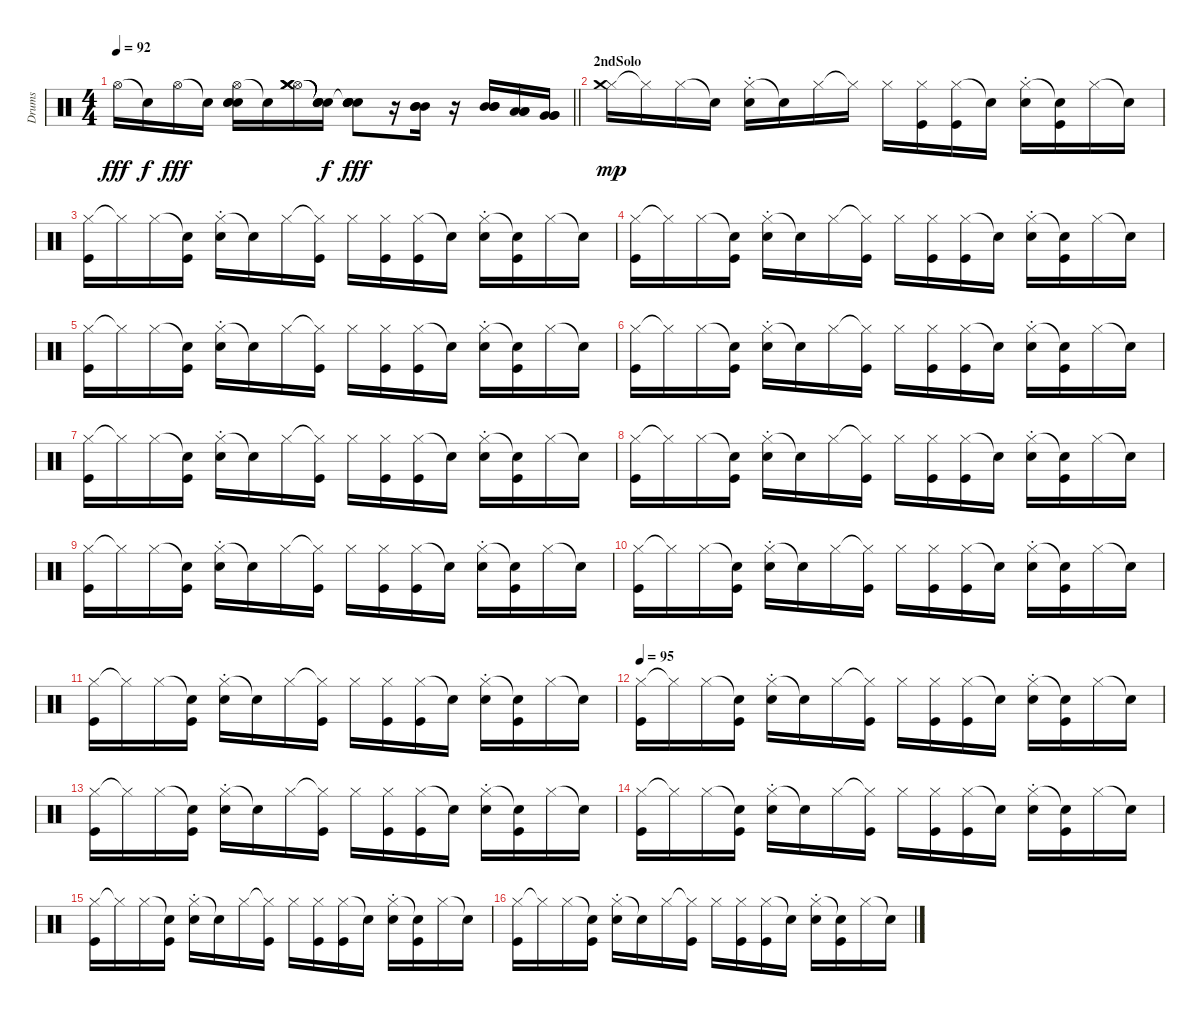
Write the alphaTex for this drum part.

\track ("Drums" "Drums") {instrument percussion}
\staff {score}
\articulation defaults
\ts (4 4)
\tempo 92
\clef neutral
\barLineRight lightlight
\ks c "Hi-Hat (open)".16{dy fff} "Snare (hit)"{t}.16{dy f} "Hi-Hat (open)".16{dy fff} "Snare (hit)"{t}.16
("Hi-Hat (open)" "Snare (hit) 2" "Snare (hit) 2" "Snare (hit) 2").16 "Snare (hit)"{t}.16 ("Hi-Hat (open)" "Crash medium (hit)" "Crash medium (hit)" "Crash medium (hit)").16 ("Snare (hit)"{t} "Snare (hit)"{t} "Snare (hit)"{t} "Snare (hit)"{t}).16{dy f} ("Snare (hit)"{t} "Snare (hit) 2" "Snare (hit) 2" "Snare (hit) 2" "Snare (hit) 2").8{dy fff} r.16 ("Mid Tom (hit)" "Mid Tom (hit)" "Mid Tom (hit)").16 r.16 ("Mid Tom (hit)" "Mid Tom (hit)" "Mid Tom (hit)").16 ("Low Tom (hit)" "Low Tom (hit)" "Low Tom (hit)").16 ("Very Low Tom (hit)" "Very Low Tom (hit)" "Very Low Tom (hit)").16 |
\section ("" "2ndSolo")
("Hi-Hat (closed)" "Crash medium (hit)").16{dy mp volume 16} "Hi-Hat (closed)"{t}.16 "Hi-Hat (closed)".16 "Snare (hit)"{t}.16 ("Hi-Hat (closed)" "Snare (hit) 2"{st}).16 "Snare (hit)"{t}.16 "Hi-Hat (closed)".16 "Hi-Hat (closed)"{t}.16 "Hi-Hat (closed)".16 ("Hi-Hat (closed)" "Kick (hit)").16 ("Hi-Hat (closed)" "Kick (hit)").16 "Snare (hit)"{t}.16 ("Hi-Hat (closed)" "Snare (hit) 2"{st}).16 ("Snare (hit)"{t} "Kick (hit)").16 "Hi-Hat (closed)".16 "Snare (hit)"{t}.16 |
("Hi-Hat (closed)" "Kick (hit)").16 "Hi-Hat (closed)"{t}.16 "Hi-Hat (closed)".16 ("Snare (hit)"{t} "Kick (hit)").16 ("Hi-Hat (closed)" "Snare (hit) 2"{st}).16 "Snare (hit)"{t}.16 "Hi-Hat (closed)".16 ("Hi-Hat (closed)"{t} "Kick (hit)").16 "Hi-Hat (closed)".16 ("Hi-Hat (closed)" "Kick (hit)").16 ("Hi-Hat (closed)" "Kick (hit)").16 "Snare (hit)"{t}.16 ("Hi-Hat (closed)" "Snare (hit) 2"{st}).16 ("Snare (hit)"{t} "Kick (hit)").16 "Hi-Hat (closed)".16 "Snare (hit)"{t}.16 |
("Hi-Hat (closed)" "Kick (hit)").16 "Hi-Hat (closed)"{t}.16 "Hi-Hat (closed)".16 ("Snare (hit)"{t} "Kick (hit)").16 ("Hi-Hat (closed)" "Snare (hit) 2"{st}).16 "Snare (hit)"{t}.16 "Hi-Hat (closed)".16 ("Hi-Hat (closed)"{t} "Kick (hit)").16 "Hi-Hat (closed)".16 ("Hi-Hat (closed)" "Kick (hit)").16 ("Hi-Hat (closed)" "Kick (hit)").16 "Snare (hit)"{t}.16 ("Hi-Hat (closed)" "Snare (hit) 2"{st}).16 ("Snare (hit)"{t} "Kick (hit)").16 "Hi-Hat (closed)".16 "Snare (hit)"{t}.16 |
("Hi-Hat (closed)" "Kick (hit)").16 "Hi-Hat (closed)"{t}.16 "Hi-Hat (closed)".16 ("Snare (hit)"{t} "Kick (hit)").16 ("Hi-Hat (closed)" "Snare (hit) 2"{st}).16 "Snare (hit)"{t}.16 "Hi-Hat (closed)".16 ("Hi-Hat (closed)"{t} "Kick (hit)").16 "Hi-Hat (closed)".16 ("Hi-Hat (closed)" "Kick (hit)").16 ("Hi-Hat (closed)" "Kick (hit)").16 "Snare (hit)"{t}.16 ("Hi-Hat (closed)" "Snare (hit) 2"{st}).16 ("Snare (hit)"{t} "Kick (hit)").16 "Hi-Hat (closed)".16 "Snare (hit)"{t}.16 |
("Hi-Hat (closed)" "Kick (hit)").16 "Hi-Hat (closed)"{t}.16 "Hi-Hat (closed)".16 ("Snare (hit)"{t} "Kick (hit)").16 ("Hi-Hat (closed)" "Snare (hit) 2"{st}).16 "Snare (hit)"{t}.16 "Hi-Hat (closed)".16 ("Hi-Hat (closed)"{t} "Kick (hit)").16 "Hi-Hat (closed)".16 ("Hi-Hat (closed)" "Kick (hit)").16 ("Hi-Hat (closed)" "Kick (hit)").16 "Snare (hit)"{t}.16 ("Hi-Hat (closed)" "Snare (hit) 2"{st}).16 ("Snare (hit)"{t} "Kick (hit)").16 "Hi-Hat (closed)".16 "Snare (hit)"{t}.16 |
("Hi-Hat (closed)" "Kick (hit)").16 "Hi-Hat (closed)"{t}.16 "Hi-Hat (closed)".16 ("Snare (hit)"{t} "Kick (hit)").16 ("Hi-Hat (closed)" "Snare (hit) 2"{st}).16 "Snare (hit)"{t}.16 "Hi-Hat (closed)".16 ("Hi-Hat (closed)"{t} "Kick (hit)").16 "Hi-Hat (closed)".16 ("Hi-Hat (closed)" "Kick (hit)").16 ("Hi-Hat (closed)" "Kick (hit)").16 "Snare (hit)"{t}.16 ("Hi-Hat (closed)" "Snare (hit) 2"{st}).16 ("Snare (hit)"{t} "Kick (hit)").16 "Hi-Hat (closed)".16 "Snare (hit)"{t}.16 |
("Hi-Hat (closed)" "Kick (hit)").16 "Hi-Hat (closed)"{t}.16 "Hi-Hat (closed)".16 ("Snare (hit)"{t} "Kick (hit)").16 ("Hi-Hat (closed)" "Snare (hit) 2"{st}).16 "Snare (hit)"{t}.16 "Hi-Hat (closed)".16 ("Hi-Hat (closed)"{t} "Kick (hit)").16 "Hi-Hat (closed)".16 ("Hi-Hat (closed)" "Kick (hit)").16 ("Hi-Hat (closed)" "Kick (hit)").16 "Snare (hit)"{t}.16 ("Hi-Hat (closed)" "Snare (hit) 2"{st}).16 ("Snare (hit)"{t} "Kick (hit)").16 "Hi-Hat (closed)".16 "Snare (hit)"{t}.16 |
("Hi-Hat (closed)" "Kick (hit)").16 "Hi-Hat (closed)"{t}.16 "Hi-Hat (closed)".16 ("Snare (hit)"{t} "Kick (hit)").16 ("Hi-Hat (closed)" "Snare (hit) 2"{st}).16 "Snare (hit)"{t}.16 "Hi-Hat (closed)".16 ("Hi-Hat (closed)"{t} "Kick (hit)").16 "Hi-Hat (closed)".16 ("Hi-Hat (closed)" "Kick (hit)").16 ("Hi-Hat (closed)" "Kick (hit)").16 "Snare (hit)"{t}.16 ("Hi-Hat (closed)" "Snare (hit) 2"{st}).16 ("Snare (hit)"{t} "Kick (hit)").16 "Hi-Hat (closed)".16 "Snare (hit)"{t}.16 |
("Hi-Hat (closed)" "Kick (hit)").16 "Hi-Hat (closed)"{t}.16 "Hi-Hat (closed)".16 ("Snare (hit)"{t} "Kick (hit)").16 ("Hi-Hat (closed)" "Snare (hit) 2"{st}).16 "Snare (hit)"{t}.16 "Hi-Hat (closed)".16 ("Hi-Hat (closed)"{t} "Kick (hit)").16 "Hi-Hat (closed)".16 ("Hi-Hat (closed)" "Kick (hit)").16 ("Hi-Hat (closed)" "Kick (hit)").16 "Snare (hit)"{t}.16 ("Hi-Hat (closed)" "Snare (hit) 2"{st}).16 ("Snare (hit)"{t} "Kick (hit)").16 "Hi-Hat (closed)".16 "Snare (hit)"{t}.16 |
("Hi-Hat (closed)" "Kick (hit)").16 "Hi-Hat (closed)"{t}.16 "Hi-Hat (closed)".16 ("Snare (hit)"{t} "Kick (hit)").16 ("Hi-Hat (closed)" "Snare (hit) 2"{st}).16 "Snare (hit)"{t}.16 "Hi-Hat (closed)".16 ("Hi-Hat (closed)"{t} "Kick (hit)").16 "Hi-Hat (closed)".16 ("Hi-Hat (closed)" "Kick (hit)").16 ("Hi-Hat (closed)" "Kick (hit)").16 "Snare (hit)"{t}.16 ("Hi-Hat (closed)" "Snare (hit) 2"{st}).16 ("Snare (hit)"{t} "Kick (hit)").16 "Hi-Hat (closed)".16 "Snare (hit)"{t}.16 |
\tempo 95
("Hi-Hat (closed)" "Kick (hit)").16 "Hi-Hat (closed)"{t}.16 "Hi-Hat (closed)".16 ("Snare (hit)"{t} "Kick (hit)").16 ("Hi-Hat (closed)" "Snare (hit) 2"{st}).16 "Snare (hit)"{t}.16 "Hi-Hat (closed)".16 ("Hi-Hat (closed)"{t} "Kick (hit)").16 "Hi-Hat (closed)".16 ("Hi-Hat (closed)" "Kick (hit)").16 ("Hi-Hat (closed)" "Kick (hit)").16 "Snare (hit)"{t}.16 ("Hi-Hat (closed)" "Snare (hit) 2"{st}).16 ("Snare (hit)"{t} "Kick (hit)").16 "Hi-Hat (closed)".16 "Snare (hit)"{t}.16 |
("Hi-Hat (closed)" "Kick (hit)").16 "Hi-Hat (closed)"{t}.16 "Hi-Hat (closed)".16 ("Snare (hit)"{t} "Kick (hit)").16 ("Hi-Hat (closed)" "Snare (hit) 2"{st}).16 "Snare (hit)"{t}.16 "Hi-Hat (closed)".16 ("Hi-Hat (closed)"{t} "Kick (hit)").16 "Hi-Hat (closed)".16 ("Hi-Hat (closed)" "Kick (hit)").16 ("Hi-Hat (closed)" "Kick (hit)").16 "Snare (hit)"{t}.16 ("Hi-Hat (closed)" "Snare (hit) 2"{st}).16 ("Snare (hit)"{t} "Kick (hit)").16 "Hi-Hat (closed)".16 "Snare (hit)"{t}.16 |
("Hi-Hat (closed)" "Kick (hit)").16 "Hi-Hat (closed)"{t}.16 "Hi-Hat (closed)".16 ("Snare (hit)"{t} "Kick (hit)").16 ("Hi-Hat (closed)" "Snare (hit) 2"{st}).16 "Snare (hit)"{t}.16 "Hi-Hat (closed)".16 ("Hi-Hat (closed)"{t} "Kick (hit)").16 "Hi-Hat (closed)".16 ("Hi-Hat (closed)" "Kick (hit)").16 ("Hi-Hat (closed)" "Kick (hit)").16 "Snare (hit)"{t}.16 ("Hi-Hat (closed)" "Snare (hit) 2"{st}).16 ("Snare (hit)"{t} "Kick (hit)").16 "Hi-Hat (closed)".16 "Snare (hit)"{t}.16 |
("Hi-Hat (closed)" "Kick (hit)").16 "Hi-Hat (closed)"{t}.16 "Hi-Hat (closed)".16 ("Snare (hit)"{t} "Kick (hit)").16 ("Hi-Hat (closed)" "Snare (hit) 2"{st}).16 "Snare (hit)"{t}.16 "Hi-Hat (closed)".16 ("Hi-Hat (closed)"{t} "Kick (hit)").16 "Hi-Hat (closed)".16 ("Hi-Hat (closed)" "Kick (hit)").16 ("Hi-Hat (closed)" "Kick (hit)").16 "Snare (hit)"{t}.16 ("Hi-Hat (closed)" "Snare (hit) 2"{st}).16 ("Snare (hit)"{t} "Kick (hit)").16 "Hi-Hat (closed)".16 "Snare (hit)"{t}.16 |
("Hi-Hat (closed)" "Kick (hit)").16 "Hi-Hat (closed)"{t}.16 "Hi-Hat (closed)".16 ("Snare (hit)"{t} "Kick (hit)").16 ("Hi-Hat (closed)" "Snare (hit) 2"{st}).16 "Snare (hit)"{t}.16 "Hi-Hat (closed)".16 ("Hi-Hat (closed)"{t} "Kick (hit)").16 "Hi-Hat (closed)".16 ("Hi-Hat (closed)" "Kick (hit)").16 ("Hi-Hat (closed)" "Kick (hit)").16 "Snare (hit)"{t}.16 ("Hi-Hat (closed)" "Snare (hit) 2"{st}).16 ("Snare (hit)"{t} "Kick (hit)").16 "Hi-Hat (closed)".16 "Snare (hit)"{t}.16
